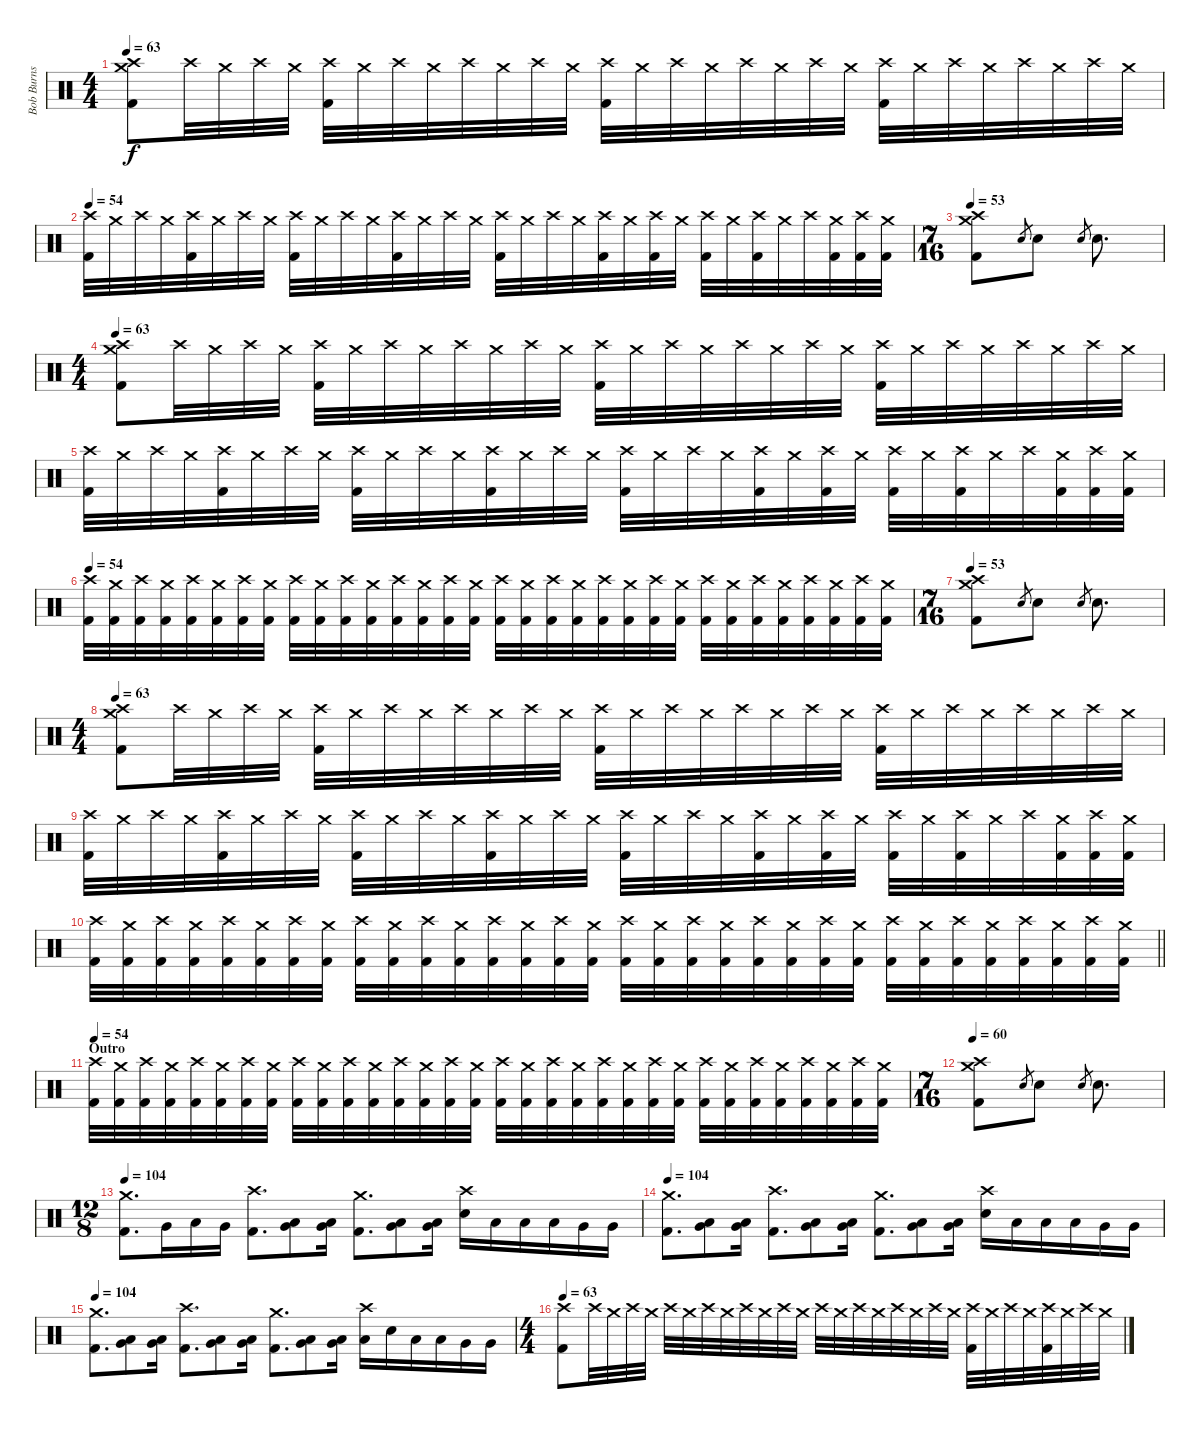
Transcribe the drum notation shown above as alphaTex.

\track ("Bob Burns (drums and percussion)" "Bob Burns ") {instrument percussion}
\staff {score}
\articulation defaults
\ts (4 4)
\tempo 63
\clef neutral
\ks c
("Crash medium (hit)" "Crash high (hit)" "Kick (hit) 2").8{dy f} "Crash high (hit)".32 "Crash medium (hit)".32 "Crash high (hit)".32 "Crash medium (hit)".32 ("Crash high (hit)" "Kick (hit) 2").32 "Crash medium (hit)".32 "Crash high (hit)".32 "Crash medium (hit)".32 "Crash high (hit)".32 "Crash medium (hit)".32 "Crash high (hit)".32 "Crash medium (hit)".32 ("Crash high (hit)" "Kick (hit) 2").32 "Crash medium (hit)".32 "Crash high (hit)".32 "Crash medium (hit)".32 "Crash high (hit)".32 "Crash medium (hit)".32 "Crash high (hit)".32 "Crash medium (hit)".32 ("Crash high (hit)" "Kick (hit) 2").32 "Crash medium (hit)".32 "Crash high (hit)".32 "Crash medium (hit)".32 "Crash high (hit)".32 "Crash medium (hit)".32 "Crash high (hit)".32 "Crash medium (hit)".32 |
\tempo 54
("Crash high (hit)" "Kick (hit) 2").32 "Crash medium (hit)".32 "Crash high (hit)".32 "Crash medium (hit)".32 ("Crash high (hit)" "Kick (hit) 2").32 "Crash medium (hit)".32 "Crash high (hit)".32 "Crash medium (hit)".32 ("Crash high (hit)" "Kick (hit) 2").32 "Crash medium (hit)".32 "Crash high (hit)".32 "Crash medium (hit)".32 ("Crash high (hit)" "Kick (hit) 2").32 "Crash medium (hit)".32 "Crash high (hit)".32 "Crash medium (hit)".32 ("Crash high (hit)" "Kick (hit) 2").32 "Crash medium (hit)".32 "Crash high (hit)".32 "Crash medium (hit)".32 ("Crash high (hit)" "Kick (hit) 2").32 "Crash medium (hit)".32 ("Crash high (hit)" "Kick (hit) 2").32 "Crash medium (hit)".32 ("Crash high (hit)" "Kick (hit) 2").32 "Crash medium (hit)".32 ("Crash high (hit)" "Kick (hit) 2").32 "Crash medium (hit)".32 "Crash high (hit)".32 ("Crash medium (hit)" "Kick (hit) 2").32 ("Crash high (hit)" "Kick (hit) 2").32 ("Crash medium (hit)" "Kick (hit) 2").32 |
\ts (7 16)
\tempo 53
("Crash medium (hit)" "Crash high (hit)" "Kick (hit) 2").8 "Electric Snare (hit)".8{gr} "Electric Snare (hit)".8 "Electric Snare (hit)".8{gr} "Electric Snare (hit)".8{d} |
\ts (4 4)
\tempo 63
("Crash medium (hit)" "Crash high (hit)" "Kick (hit) 2").8 "Crash high (hit)".32 "Crash medium (hit)".32 "Crash high (hit)".32 "Crash medium (hit)".32 ("Crash high (hit)" "Kick (hit) 2").32 "Crash medium (hit)".32 "Crash high (hit)".32 "Crash medium (hit)".32 "Crash high (hit)".32 "Crash medium (hit)".32 "Crash high (hit)".32 "Crash medium (hit)".32 ("Crash high (hit)" "Kick (hit) 2").32 "Crash medium (hit)".32 "Crash high (hit)".32 "Crash medium (hit)".32 "Crash high (hit)".32 "Crash medium (hit)".32 "Crash high (hit)".32 "Crash medium (hit)".32 ("Crash high (hit)" "Kick (hit) 2").32 "Crash medium (hit)".32 "Crash high (hit)".32 "Crash medium (hit)".32 "Crash high (hit)".32 "Crash medium (hit)".32 "Crash high (hit)".32 "Crash medium (hit)".32 |
("Crash high (hit)" "Kick (hit) 2").32 "Crash medium (hit)".32 "Crash high (hit)".32 "Crash medium (hit)".32 ("Crash high (hit)" "Kick (hit) 2").32 "Crash medium (hit)".32 "Crash high (hit)".32 "Crash medium (hit)".32 ("Crash high (hit)" "Kick (hit) 2").32 "Crash medium (hit)".32 "Crash high (hit)".32 "Crash medium (hit)".32 ("Crash high (hit)" "Kick (hit) 2").32 "Crash medium (hit)".32 "Crash high (hit)".32 "Crash medium (hit)".32 ("Crash high (hit)" "Kick (hit) 2").32 "Crash medium (hit)".32 "Crash high (hit)".32 "Crash medium (hit)".32 ("Crash high (hit)" "Kick (hit) 2").32 "Crash medium (hit)".32 ("Crash high (hit)" "Kick (hit) 2").32 "Crash medium (hit)".32 ("Crash high (hit)" "Kick (hit) 2").32 "Crash medium (hit)".32 ("Crash high (hit)" "Kick (hit) 2").32 "Crash medium (hit)".32 "Crash high (hit)".32 ("Crash medium (hit)" "Kick (hit) 2").32 ("Crash high (hit)" "Kick (hit) 2").32 ("Crash medium (hit)" "Kick (hit) 2").32 |
\tempo 54
("Crash high (hit)" "Kick (hit) 2").32 ("Crash medium (hit)" "Kick (hit) 2").32 ("Crash high (hit)" "Kick (hit) 2").32 ("Crash medium (hit)" "Kick (hit) 2").32 ("Crash high (hit)" "Kick (hit) 2").32 ("Crash medium (hit)" "Kick (hit) 2").32 ("Crash high (hit)" "Kick (hit) 2").32 ("Crash medium (hit)" "Kick (hit) 2").32 ("Crash high (hit)" "Kick (hit) 2").32 ("Crash medium (hit)" "Kick (hit) 2").32 ("Crash high (hit)" "Kick (hit) 2").32 ("Crash medium (hit)" "Kick (hit) 2").32 ("Crash high (hit)" "Kick (hit) 2").32 ("Crash medium (hit)" "Kick (hit) 2").32 ("Crash high (hit)" "Kick (hit) 2").32 ("Crash medium (hit)" "Kick (hit) 2").32 ("Crash high (hit)" "Kick (hit) 2").32 ("Crash medium (hit)" "Kick (hit) 2").32 ("Crash high (hit)" "Kick (hit) 2").32 ("Crash medium (hit)" "Kick (hit) 2").32 ("Crash high (hit)" "Kick (hit) 2").32 ("Crash medium (hit)" "Kick (hit) 2").32 ("Crash high (hit)" "Kick (hit) 2").32 ("Crash medium (hit)" "Kick (hit) 2").32 ("Crash high (hit)" "Kick (hit) 2").32 ("Crash medium (hit)" "Kick (hit) 2").32 ("Crash high (hit)" "Kick (hit) 2").32 ("Crash medium (hit)" "Kick (hit) 2").32 ("Crash high (hit)" "Kick (hit) 2").32 ("Crash medium (hit)" "Kick (hit) 2").32 ("Crash high (hit)" "Kick (hit) 2").32 ("Crash medium (hit)" "Kick (hit) 2").32 |
\ts (7 16)
\tempo 53
("Crash medium (hit)" "Crash high (hit)" "Kick (hit) 2").8 "Electric Snare (hit)".8{gr} "Electric Snare (hit)".8 "Electric Snare (hit)".8{gr} "Electric Snare (hit)".8{d} |
\ts (4 4)
\tempo 63
("Crash medium (hit)" "Crash high (hit)" "Kick (hit) 2").8 "Crash high (hit)".32 "Crash medium (hit)".32 "Crash high (hit)".32 "Crash medium (hit)".32 ("Crash high (hit)" "Kick (hit) 2").32 "Crash medium (hit)".32 "Crash high (hit)".32 "Crash medium (hit)".32 "Crash high (hit)".32 "Crash medium (hit)".32 "Crash high (hit)".32 "Crash medium (hit)".32 ("Crash high (hit)" "Kick (hit) 2").32 "Crash medium (hit)".32 "Crash high (hit)".32 "Crash medium (hit)".32 "Crash high (hit)".32 "Crash medium (hit)".32 "Crash high (hit)".32 "Crash medium (hit)".32 ("Crash high (hit)" "Kick (hit) 2").32 "Crash medium (hit)".32 "Crash high (hit)".32 "Crash medium (hit)".32 "Crash high (hit)".32 "Crash medium (hit)".32 "Crash high (hit)".32 "Crash medium (hit)".32 |
("Crash high (hit)" "Kick (hit) 2").32 "Crash medium (hit)".32 "Crash high (hit)".32 "Crash medium (hit)".32 ("Crash high (hit)" "Kick (hit) 2").32 "Crash medium (hit)".32 "Crash high (hit)".32 "Crash medium (hit)".32 ("Crash high (hit)" "Kick (hit) 2").32 "Crash medium (hit)".32 "Crash high (hit)".32 "Crash medium (hit)".32 ("Crash high (hit)" "Kick (hit) 2").32 "Crash medium (hit)".32 "Crash high (hit)".32 "Crash medium (hit)".32 ("Crash high (hit)" "Kick (hit) 2").32 "Crash medium (hit)".32 "Crash high (hit)".32 "Crash medium (hit)".32 ("Crash high (hit)" "Kick (hit) 2").32 "Crash medium (hit)".32 ("Crash high (hit)" "Kick (hit) 2").32 "Crash medium (hit)".32 ("Crash high (hit)" "Kick (hit) 2").32 "Crash medium (hit)".32 ("Crash high (hit)" "Kick (hit) 2").32 "Crash medium (hit)".32 "Crash high (hit)".32 ("Crash medium (hit)" "Kick (hit) 2").32 ("Crash high (hit)" "Kick (hit) 2").32 ("Crash medium (hit)" "Kick (hit) 2").32 |
\barLineRight lightlight
("Crash high (hit)" "Kick (hit) 2").32 ("Crash medium (hit)" "Kick (hit) 2").32 ("Crash high (hit)" "Kick (hit) 2").32 ("Crash medium (hit)" "Kick (hit) 2").32 ("Crash high (hit)" "Kick (hit) 2").32 ("Crash medium (hit)" "Kick (hit) 2").32 ("Crash high (hit)" "Kick (hit) 2").32 ("Crash medium (hit)" "Kick (hit) 2").32 ("Crash high (hit)" "Kick (hit) 2").32 ("Crash medium (hit)" "Kick (hit) 2").32 ("Crash high (hit)" "Kick (hit) 2").32 ("Crash medium (hit)" "Kick (hit) 2").32 ("Crash high (hit)" "Kick (hit) 2").32 ("Crash medium (hit)" "Kick (hit) 2").32 ("Crash high (hit)" "Kick (hit) 2").32 ("Crash medium (hit)" "Kick (hit) 2").32 ("Crash high (hit)" "Kick (hit) 2").32 ("Crash medium (hit)" "Kick (hit) 2").32 ("Crash high (hit)" "Kick (hit) 2").32 ("Crash medium (hit)" "Kick (hit) 2").32 ("Crash high (hit)" "Kick (hit) 2").32 ("Crash medium (hit)" "Kick (hit) 2").32 ("Crash high (hit)" "Kick (hit) 2").32 ("Crash medium (hit)" "Kick (hit) 2").32 ("Crash high (hit)" "Kick (hit) 2").32 ("Crash medium (hit)" "Kick (hit) 2").32 ("Crash high (hit)" "Kick (hit) 2").32 ("Crash medium (hit)" "Kick (hit) 2").32 ("Crash high (hit)" "Kick (hit) 2").32 ("Crash medium (hit)" "Kick (hit) 2").32 ("Crash high (hit)" "Kick (hit) 2").32 ("Crash medium (hit)" "Kick (hit) 2").32 |
\section ("" "Outro")
\tempo 54
("Crash high (hit)" "Kick (hit) 2").32 ("Crash medium (hit)" "Kick (hit) 2").32 ("Crash high (hit)" "Kick (hit) 2").32 ("Crash medium (hit)" "Kick (hit) 2").32 ("Crash high (hit)" "Kick (hit) 2").32 ("Crash medium (hit)" "Kick (hit) 2").32 ("Crash high (hit)" "Kick (hit) 2").32 ("Crash medium (hit)" "Kick (hit) 2").32 ("Crash high (hit)" "Kick (hit) 2").32 ("Crash medium (hit)" "Kick (hit) 2").32 ("Crash high (hit)" "Kick (hit) 2").32 ("Crash medium (hit)" "Kick (hit) 2").32 ("Crash high (hit)" "Kick (hit) 2").32 ("Crash medium (hit)" "Kick (hit) 2").32 ("Crash high (hit)" "Kick (hit) 2").32 ("Crash medium (hit)" "Kick (hit) 2").32 ("Crash high (hit)" "Kick (hit) 2").32 ("Crash medium (hit)" "Kick (hit) 2").32 ("Crash high (hit)" "Kick (hit) 2").32 ("Crash medium (hit)" "Kick (hit) 2").32 ("Crash high (hit)" "Kick (hit) 2").32 ("Crash medium (hit)" "Kick (hit) 2").32 ("Crash high (hit)" "Kick (hit) 2").32 ("Crash medium (hit)" "Kick (hit) 2").32 ("Crash high (hit)" "Kick (hit) 2").32 ("Crash medium (hit)" "Kick (hit) 2").32 ("Crash high (hit)" "Kick (hit) 2").32 ("Crash medium (hit)" "Kick (hit) 2").32 ("Crash high (hit)" "Kick (hit) 2").32 ("Crash medium (hit)" "Kick (hit) 2").32 ("Crash high (hit)" "Kick (hit) 2").32 ("Crash medium (hit)" "Kick (hit) 2").32 |
\ts (7 16)
\tempo 53
\tempo 60
("Crash medium (hit)" "Crash high (hit)" "Kick (hit) 2").8 "Electric Snare (hit)".8{gr} "Electric Snare (hit)".8 "Electric Snare (hit)".8{gr} "Electric Snare (hit)".8{d} |
\ts (12 8)
\tempo 104
("Crash medium (hit)" "Kick (hit) 2").8{d} "Very Low Tom (hit)".16 "Low Tom (hit)".16 "Very Low Tom (hit)".16 ("Crash high (hit)" "Kick (hit) 2").8{d} ("Low Tom (hit)" "Very Low Tom (hit)").8 ("Low Tom (hit)" "Very Low Tom (hit)").16 ("Crash medium (hit)" "Kick (hit) 2").8{d} ("Low Tom (hit)" "Very Low Tom (hit)").8 ("Low Tom (hit)" "Very Low Tom (hit)").16 ("Crash high (hit)" "Electric Snare (hit)").16 "Low Tom (hit)".16 "Low Tom (hit)".16 "Low Tom (hit)".16 "Very Low Tom (hit)".16 "Very Low Tom (hit)".16 |
\tempo 104
("Crash medium (hit)" "Kick (hit) 2").8{d} ("Low Tom (hit)" "Very Low Tom (hit)").8 ("Low Tom (hit)" "Very Low Tom (hit)").16 ("Crash high (hit)" "Kick (hit) 2").8{d} ("Low Tom (hit)" "Very Low Tom (hit)").8 ("Low Tom (hit)" "Very Low Tom (hit)").16 ("Crash medium (hit)" "Kick (hit) 2").8{d} ("Low Tom (hit)" "Very Low Tom (hit)").8 ("Low Tom (hit)" "Very Low Tom (hit)").16 ("Crash high (hit)" "Electric Snare (hit)").16 "Low Tom (hit)".16 "Low Tom (hit)".16 "Low Tom (hit)".16 "Very Low Tom (hit)".16 "Very Low Tom (hit)".16 |
\tempo 104
("Crash medium (hit)" "Kick (hit) 2").8{d} ("Low Tom (hit)" "Very Low Tom (hit)").8 ("Low Tom (hit)" "Very Low Tom (hit)").16 ("Crash high (hit)" "Kick (hit) 2").8{d} ("Low Tom (hit)" "Very Low Tom (hit)").8 ("Low Tom (hit)" "Very Low Tom (hit)").16 ("Crash medium (hit)" "Kick (hit) 2").8{d} ("Low Tom (hit)" "Very Low Tom (hit)").8 ("Low Tom (hit)" "Very Low Tom (hit)").16 ("Crash high (hit)" "Low Tom (hit)").16 "Electric Snare (hit)".16 "Low Tom (hit)".16 "Low Tom (hit)".16 "Very Low Tom (hit)".16 "Very Low Tom (hit)".16 |
\ts (4 4)
\tempo 63
("Crash high (hit)" "Kick (hit) 2").8 "Crash high (hit)".32 "Crash medium (hit)".32 "Crash high (hit)".32 "Crash medium (hit)".32 "Crash high (hit)".32 "Crash medium (hit)".32 "Crash high (hit)".32 "Crash medium (hit)".32 "Crash high (hit)".32 "Crash medium (hit)".32 "Crash high (hit)".32 "Crash medium (hit)".32 "Crash high (hit)".32 "Crash medium (hit)".32 "Crash high (hit)".32 "Crash medium (hit)".32 "Crash high (hit)".32 "Crash medium (hit)".32 "Crash high (hit)".32 "Crash medium (hit)".32 ("Crash high (hit)" "Kick (hit) 2").32 "Crash medium (hit)".32 "Crash high (hit)".32 "Crash medium (hit)".32 ("Crash high (hit)" "Kick (hit) 2").32 "Crash medium (hit)".32 "Crash high (hit)".32 "Crash medium (hit)".32
